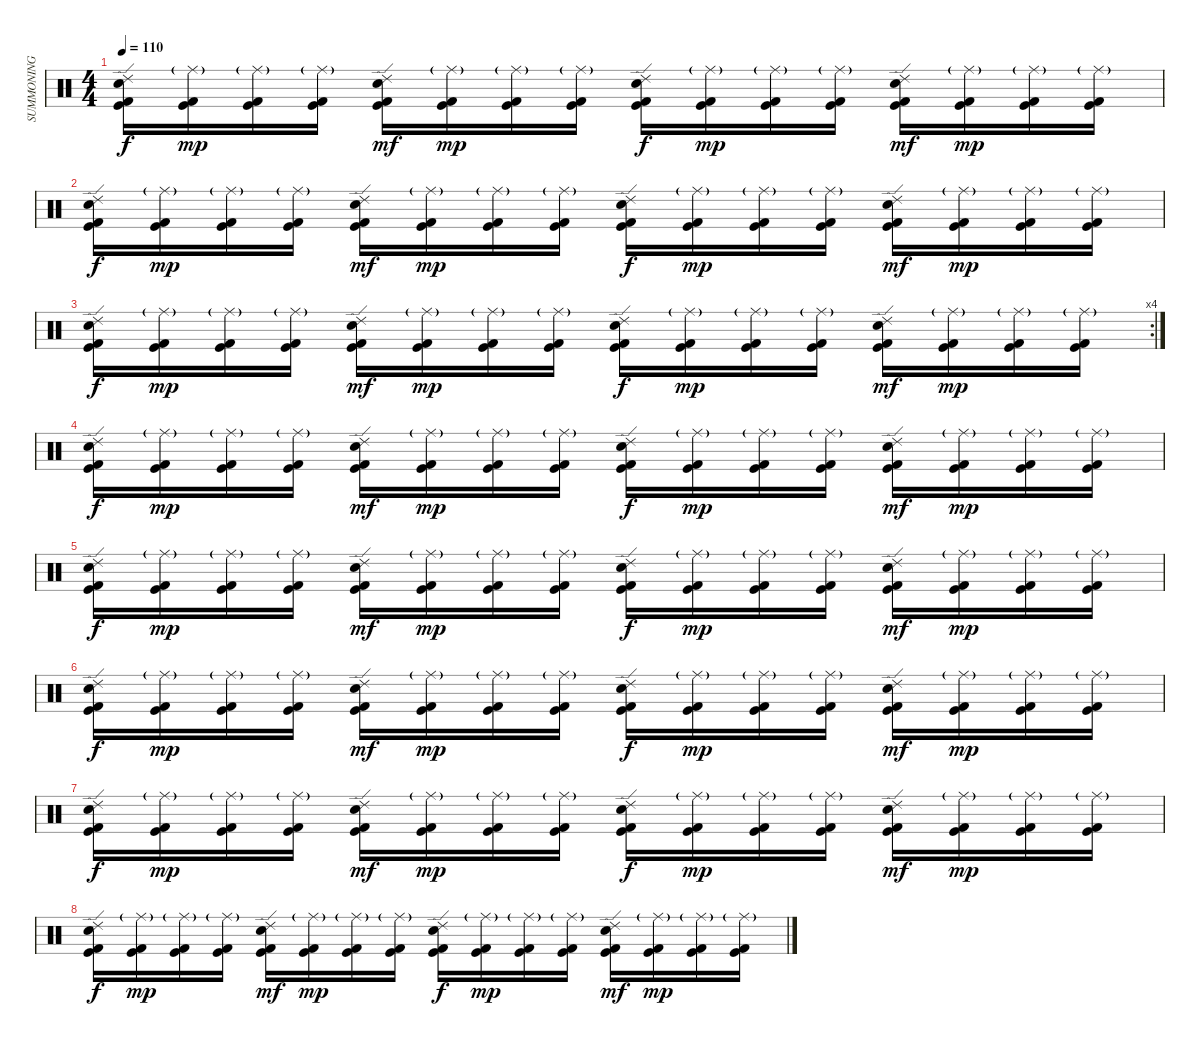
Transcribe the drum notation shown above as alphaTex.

\track ("SUMMONING" "SUMMONING") {instrument percussion}
\staff {score}
\articulation defaults
\ts (4 4)
\tempo 110
\clef neutral
\ks c
("Kick (hit)" "Ride (edge) 2" "Electric Snare (hit)" "Kick (hit) 2").16{dy f} ("Ride (middle)"{g} "Kick (hit)" "Kick (hit) 2").16{dy mp} ("Ride (middle)"{g} "Kick (hit)" "Kick (hit) 2").16 ("Ride (middle)"{g} "Kick (hit)" "Kick (hit) 2").16 ("Ride (edge) 2" "Kick (hit)" "Electric Snare (hit)" "Kick (hit) 2").16{dy mf} ("Ride (middle)"{g} "Kick (hit)" "Kick (hit) 2").16{dy mp} ("Ride (middle)"{g} "Kick (hit)" "Kick (hit) 2").16 ("Ride (middle)"{g} "Kick (hit)" "Kick (hit) 2").16 ("Kick (hit)" "Ride (edge) 2" "Electric Snare (hit)" "Kick (hit) 2").16{dy f} ("Ride (middle)"{g} "Kick (hit)" "Kick (hit) 2").16{dy mp} ("Ride (middle)"{g} "Kick (hit)" "Kick (hit) 2").16 ("Ride (middle)"{g} "Kick (hit)" "Kick (hit) 2").16 ("Ride (edge) 2" "Kick (hit)" "Electric Snare (hit)" "Kick (hit) 2").16{dy mf} ("Ride (middle)"{g} "Kick (hit)" "Kick (hit) 2").16{dy mp} ("Ride (middle)"{g} "Kick (hit)" "Kick (hit) 2").16 ("Ride (middle)"{g} "Kick (hit)" "Kick (hit) 2").16 |
("Kick (hit)" "Ride (edge) 2" "Electric Snare (hit)" "Kick (hit) 2").16{dy f} ("Ride (middle)"{g} "Kick (hit)" "Kick (hit) 2").16{dy mp} ("Ride (middle)"{g} "Kick (hit)" "Kick (hit) 2").16 ("Ride (middle)"{g} "Kick (hit)" "Kick (hit) 2").16 ("Ride (edge) 2" "Kick (hit)" "Electric Snare (hit)" "Kick (hit) 2").16{dy mf} ("Ride (middle)"{g} "Kick (hit)" "Kick (hit) 2").16{dy mp} ("Ride (middle)"{g} "Kick (hit)" "Kick (hit) 2").16 ("Ride (middle)"{g} "Kick (hit)" "Kick (hit) 2").16 ("Kick (hit)" "Ride (edge) 2" "Electric Snare (hit)" "Kick (hit) 2").16{dy f} ("Ride (middle)"{g} "Kick (hit)" "Kick (hit) 2").16{dy mp} ("Ride (middle)"{g} "Kick (hit)" "Kick (hit) 2").16 ("Ride (middle)"{g} "Kick (hit)" "Kick (hit) 2").16 ("Ride (edge) 2" "Kick (hit)" "Electric Snare (hit)" "Kick (hit) 2").16{dy mf} ("Ride (middle)"{g} "Kick (hit)" "Kick (hit) 2").16{dy mp} ("Ride (middle)"{g} "Kick (hit)" "Kick (hit) 2").16 ("Ride (middle)"{g} "Kick (hit)" "Kick (hit) 2").16 |
\rc 4
("Kick (hit)" "Ride (edge) 2" "Electric Snare (hit)" "Kick (hit) 2").16{dy f} ("Ride (middle)"{g} "Kick (hit)" "Kick (hit) 2").16{dy mp} ("Ride (middle)"{g} "Kick (hit)" "Kick (hit) 2").16 ("Ride (middle)"{g} "Kick (hit)" "Kick (hit) 2").16 ("Ride (edge) 2" "Kick (hit)" "Electric Snare (hit)" "Kick (hit) 2").16{dy mf} ("Ride (middle)"{g} "Kick (hit)" "Kick (hit) 2").16{dy mp} ("Ride (middle)"{g} "Kick (hit)" "Kick (hit) 2").16 ("Ride (middle)"{g} "Kick (hit)" "Kick (hit) 2").16 ("Kick (hit)" "Ride (edge) 2" "Electric Snare (hit)" "Kick (hit) 2").16{dy f} ("Ride (middle)"{g} "Kick (hit)" "Kick (hit) 2").16{dy mp} ("Ride (middle)"{g} "Kick (hit)" "Kick (hit) 2").16 ("Ride (middle)"{g} "Kick (hit)" "Kick (hit) 2").16 ("Ride (edge) 2" "Kick (hit)" "Electric Snare (hit)" "Kick (hit) 2").16{dy mf} ("Ride (middle)"{g} "Kick (hit)" "Kick (hit) 2").16{dy mp} ("Ride (middle)"{g} "Kick (hit)" "Kick (hit) 2").16 ("Ride (middle)"{g} "Kick (hit)" "Kick (hit) 2").16 |
("Kick (hit)" "Ride (edge) 2" "Electric Snare (hit)" "Kick (hit) 2").16{dy f volume 0} ("Ride (middle)"{g} "Kick (hit)" "Kick (hit) 2").16{dy mp} ("Ride (middle)"{g} "Kick (hit)" "Kick (hit) 2").16 ("Ride (middle)"{g} "Kick (hit)" "Kick (hit) 2").16 ("Ride (edge) 2" "Kick (hit)" "Electric Snare (hit)" "Kick (hit) 2").16{dy mf} ("Ride (middle)"{g} "Kick (hit)" "Kick (hit) 2").16{dy mp} ("Ride (middle)"{g} "Kick (hit)" "Kick (hit) 2").16 ("Ride (middle)"{g} "Kick (hit)" "Kick (hit) 2").16 ("Kick (hit)" "Ride (edge) 2" "Electric Snare (hit)" "Kick (hit) 2").16{dy f} ("Ride (middle)"{g} "Kick (hit)" "Kick (hit) 2").16{dy mp} ("Ride (middle)"{g} "Kick (hit)" "Kick (hit) 2").16 ("Ride (middle)"{g} "Kick (hit)" "Kick (hit) 2").16 ("Ride (edge) 2" "Kick (hit)" "Electric Snare (hit)" "Kick (hit) 2").16{dy mf} ("Ride (middle)"{g} "Kick (hit)" "Kick (hit) 2").16{dy mp} ("Ride (middle)"{g} "Kick (hit)" "Kick (hit) 2").16 ("Ride (middle)"{g} "Kick (hit)" "Kick (hit) 2").16 |
("Kick (hit)" "Ride (edge) 2" "Electric Snare (hit)" "Kick (hit) 2").16{dy f} ("Ride (middle)"{g} "Kick (hit)" "Kick (hit) 2").16{dy mp} ("Ride (middle)"{g} "Kick (hit)" "Kick (hit) 2").16 ("Ride (middle)"{g} "Kick (hit)" "Kick (hit) 2").16 ("Ride (edge) 2" "Kick (hit)" "Electric Snare (hit)" "Kick (hit) 2").16{dy mf} ("Ride (middle)"{g} "Kick (hit)" "Kick (hit) 2").16{dy mp} ("Ride (middle)"{g} "Kick (hit)" "Kick (hit) 2").16 ("Ride (middle)"{g} "Kick (hit)" "Kick (hit) 2").16 ("Kick (hit)" "Ride (edge) 2" "Electric Snare (hit)" "Kick (hit) 2").16{dy f} ("Ride (middle)"{g} "Kick (hit)" "Kick (hit) 2").16{dy mp} ("Ride (middle)"{g} "Kick (hit)" "Kick (hit) 2").16 ("Ride (middle)"{g} "Kick (hit)" "Kick (hit) 2").16 ("Ride (edge) 2" "Kick (hit)" "Electric Snare (hit)" "Kick (hit) 2").16{dy mf} ("Ride (middle)"{g} "Kick (hit)" "Kick (hit) 2").16{dy mp} ("Ride (middle)"{g} "Kick (hit)" "Kick (hit) 2").16 ("Ride (middle)"{g} "Kick (hit)" "Kick (hit) 2").16 |
("Kick (hit)" "Ride (edge) 2" "Electric Snare (hit)" "Kick (hit) 2").16{dy f} ("Ride (middle)"{g} "Kick (hit)" "Kick (hit) 2").16{dy mp} ("Ride (middle)"{g} "Kick (hit)" "Kick (hit) 2").16 ("Ride (middle)"{g} "Kick (hit)" "Kick (hit) 2").16 ("Ride (edge) 2" "Kick (hit)" "Electric Snare (hit)" "Kick (hit) 2").16{dy mf} ("Ride (middle)"{g} "Kick (hit)" "Kick (hit) 2").16{dy mp} ("Ride (middle)"{g} "Kick (hit)" "Kick (hit) 2").16 ("Ride (middle)"{g} "Kick (hit)" "Kick (hit) 2").16 ("Kick (hit)" "Ride (edge) 2" "Electric Snare (hit)" "Kick (hit) 2").16{dy f} ("Ride (middle)"{g} "Kick (hit)" "Kick (hit) 2").16{dy mp} ("Ride (middle)"{g} "Kick (hit)" "Kick (hit) 2").16 ("Ride (middle)"{g} "Kick (hit)" "Kick (hit) 2").16 ("Ride (edge) 2" "Kick (hit)" "Electric Snare (hit)" "Kick (hit) 2").16{dy mf} ("Ride (middle)"{g} "Kick (hit)" "Kick (hit) 2").16{dy mp} ("Ride (middle)"{g} "Kick (hit)" "Kick (hit) 2").16 ("Ride (middle)"{g} "Kick (hit)" "Kick (hit) 2").16 |
("Kick (hit)" "Ride (edge) 2" "Electric Snare (hit)" "Kick (hit) 2").16{dy f} ("Ride (middle)"{g} "Kick (hit)" "Kick (hit) 2").16{dy mp} ("Ride (middle)"{g} "Kick (hit)" "Kick (hit) 2").16 ("Ride (middle)"{g} "Kick (hit)" "Kick (hit) 2").16 ("Ride (edge) 2" "Kick (hit)" "Electric Snare (hit)" "Kick (hit) 2").16{dy mf} ("Ride (middle)"{g} "Kick (hit)" "Kick (hit) 2").16{dy mp} ("Ride (middle)"{g} "Kick (hit)" "Kick (hit) 2").16 ("Ride (middle)"{g} "Kick (hit)" "Kick (hit) 2").16 ("Kick (hit)" "Ride (edge) 2" "Electric Snare (hit)" "Kick (hit) 2").16{dy f} ("Ride (middle)"{g} "Kick (hit)" "Kick (hit) 2").16{dy mp} ("Ride (middle)"{g} "Kick (hit)" "Kick (hit) 2").16 ("Ride (middle)"{g} "Kick (hit)" "Kick (hit) 2").16 ("Ride (edge) 2" "Kick (hit)" "Electric Snare (hit)" "Kick (hit) 2").16{dy mf} ("Ride (middle)"{g} "Kick (hit)" "Kick (hit) 2").16{dy mp} ("Ride (middle)"{g} "Kick (hit)" "Kick (hit) 2").16 ("Ride (middle)"{g} "Kick (hit)" "Kick (hit) 2").16 |
("Kick (hit)" "Ride (edge) 2" "Electric Snare (hit)" "Kick (hit) 2").16{dy f} ("Ride (middle)"{g} "Kick (hit)" "Kick (hit) 2").16{dy mp} ("Ride (middle)"{g} "Kick (hit)" "Kick (hit) 2").16 ("Ride (middle)"{g} "Kick (hit)" "Kick (hit) 2").16 ("Ride (edge) 2" "Kick (hit)" "Electric Snare (hit)" "Kick (hit) 2").16{dy mf} ("Ride (middle)"{g} "Kick (hit)" "Kick (hit) 2").16{dy mp} ("Ride (middle)"{g} "Kick (hit)" "Kick (hit) 2").16 ("Ride (middle)"{g} "Kick (hit)" "Kick (hit) 2").16 ("Kick (hit)" "Ride (edge) 2" "Electric Snare (hit)" "Kick (hit) 2").16{dy f} ("Ride (middle)"{g} "Kick (hit)" "Kick (hit) 2").16{dy mp} ("Ride (middle)"{g} "Kick (hit)" "Kick (hit) 2").16 ("Ride (middle)"{g} "Kick (hit)" "Kick (hit) 2").16 ("Ride (edge) 2" "Kick (hit)" "Electric Snare (hit)" "Kick (hit) 2").16{dy mf} ("Ride (middle)"{g} "Kick (hit)" "Kick (hit) 2").16{dy mp} ("Ride (middle)"{g} "Kick (hit)" "Kick (hit) 2").16 ("Ride (middle)"{g} "Kick (hit)" "Kick (hit) 2").16
